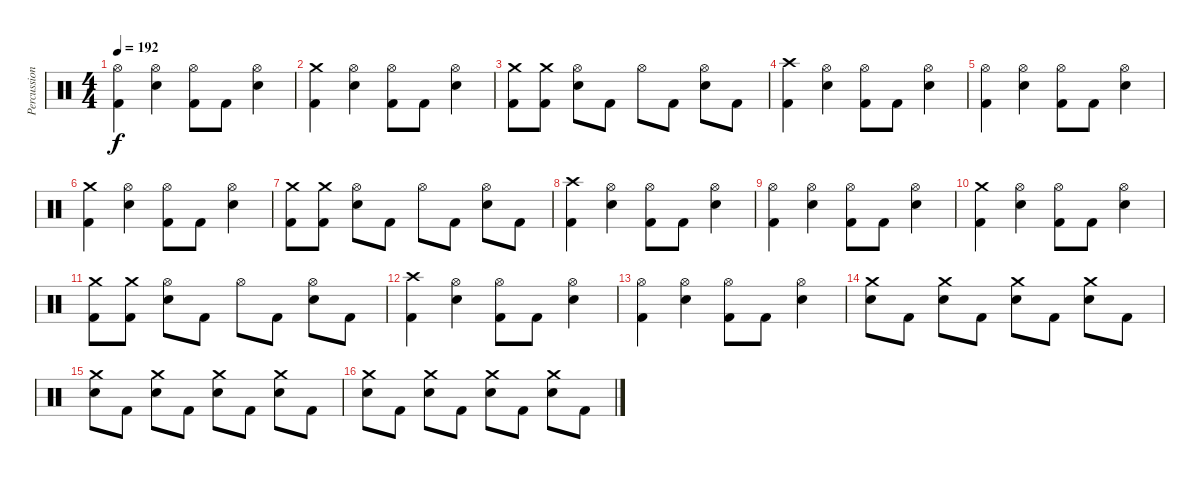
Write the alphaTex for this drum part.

\track ("Percussion" "Percussion") {instrument percussion}
\staff {score}
\articulation defaults
\ts (4 4)
\tempo 192
\clef neutral
\ks c
("Hi-Hat (open)" "Kick (hit) 2").4{dy f} ("Hi-Hat (open)" "Electric Snare (hit)").4 ("Hi-Hat (open)" "Kick (hit) 2").8 "Kick (hit) 2".8 ("Hi-Hat (open)" "Electric Snare (hit)").4 |
("Crash medium (hit)" "Kick (hit) 2").4 ("Hi-Hat (open)" "Electric Snare (hit)").4 ("Hi-Hat (open)" "Kick (hit) 2").8 "Kick (hit) 2".8 ("Hi-Hat (open)" "Electric Snare (hit)").4 |
("Crash medium (hit)" "Kick (hit) 2").8 ("Crash medium (hit)" "Kick (hit) 2").8 ("Hi-Hat (open)" "Electric Snare (hit)").8 "Kick (hit) 2".8 "Hi-Hat (open)".8 "Kick (hit) 2".8 ("Hi-Hat (open)" "Electric Snare (hit)").8 "Kick (hit) 2".8 |
("Crash high (hit)" "Kick (hit) 2").4 ("Hi-Hat (open)" "Electric Snare (hit)").4 ("Hi-Hat (open)" "Kick (hit) 2").8 "Kick (hit) 2".8 ("Hi-Hat (open)" "Electric Snare (hit)").4 |
("Hi-Hat (open)" "Kick (hit) 2").4 ("Hi-Hat (open)" "Electric Snare (hit)").4 ("Hi-Hat (open)" "Kick (hit) 2").8 "Kick (hit) 2".8 ("Hi-Hat (open)" "Electric Snare (hit)").4 |
("Crash medium (hit)" "Kick (hit) 2").4 ("Hi-Hat (open)" "Electric Snare (hit)").4 ("Hi-Hat (open)" "Kick (hit) 2").8 "Kick (hit) 2".8 ("Hi-Hat (open)" "Electric Snare (hit)").4 |
("Crash medium (hit)" "Kick (hit) 2").8 ("Crash medium (hit)" "Kick (hit) 2").8 ("Hi-Hat (open)" "Electric Snare (hit)").8 "Kick (hit) 2".8 "Hi-Hat (open)".8 "Kick (hit) 2".8 ("Hi-Hat (open)" "Electric Snare (hit)").8 "Kick (hit) 2".8 |
("Crash high (hit)" "Kick (hit) 2").4 ("Hi-Hat (open)" "Electric Snare (hit)").4 ("Hi-Hat (open)" "Kick (hit) 2").8 "Kick (hit) 2".8 ("Hi-Hat (open)" "Electric Snare (hit)").4 |
("Hi-Hat (open)" "Kick (hit) 2").4 ("Hi-Hat (open)" "Electric Snare (hit)").4 ("Hi-Hat (open)" "Kick (hit) 2").8 "Kick (hit) 2".8 ("Hi-Hat (open)" "Electric Snare (hit)").4 |
("Crash medium (hit)" "Kick (hit) 2").4 ("Hi-Hat (open)" "Electric Snare (hit)").4 ("Hi-Hat (open)" "Kick (hit) 2").8 "Kick (hit) 2".8 ("Hi-Hat (open)" "Electric Snare (hit)").4 |
("Crash medium (hit)" "Kick (hit) 2").8 ("Crash medium (hit)" "Kick (hit) 2").8 ("Hi-Hat (open)" "Electric Snare (hit)").8 "Kick (hit) 2".8 "Hi-Hat (open)".8 "Kick (hit) 2".8 ("Hi-Hat (open)" "Electric Snare (hit)").8 "Kick (hit) 2".8 |
("Crash high (hit)" "Kick (hit) 2").4 ("Hi-Hat (open)" "Electric Snare (hit)").4 ("Hi-Hat (open)" "Kick (hit) 2").8 "Kick (hit) 2".8 ("Hi-Hat (open)" "Electric Snare (hit)").4 |
("Hi-Hat (open)" "Kick (hit) 2").4 ("Hi-Hat (open)" "Electric Snare (hit)").4 ("Hi-Hat (open)" "Kick (hit) 2").8 "Kick (hit) 2".8 ("Hi-Hat (open)" "Electric Snare (hit)").4 |
("Crash medium (hit)" "Electric Snare (hit)").8 "Kick (hit) 2".8 ("Crash medium (hit)" "Electric Snare (hit)").8 "Kick (hit) 2".8 ("Crash medium (hit)" "Electric Snare (hit)").8 "Kick (hit) 2".8 ("Crash medium (hit)" "Electric Snare (hit)").8 "Kick (hit) 2".8 |
("Crash medium (hit)" "Electric Snare (hit)").8 "Kick (hit) 2".8 ("Crash medium (hit)" "Electric Snare (hit)").8 "Kick (hit) 2".8 ("Crash medium (hit)" "Electric Snare (hit)").8 "Kick (hit) 2".8 ("Crash medium (hit)" "Electric Snare (hit)").8 "Kick (hit) 2".8 |
("Crash medium (hit)" "Electric Snare (hit)").8 "Kick (hit) 2".8 ("Crash medium (hit)" "Electric Snare (hit)").8 "Kick (hit) 2".8 ("Crash medium (hit)" "Electric Snare (hit)").8 "Kick (hit) 2".8 ("Crash medium (hit)" "Electric Snare (hit)").8 "Kick (hit) 2".8
